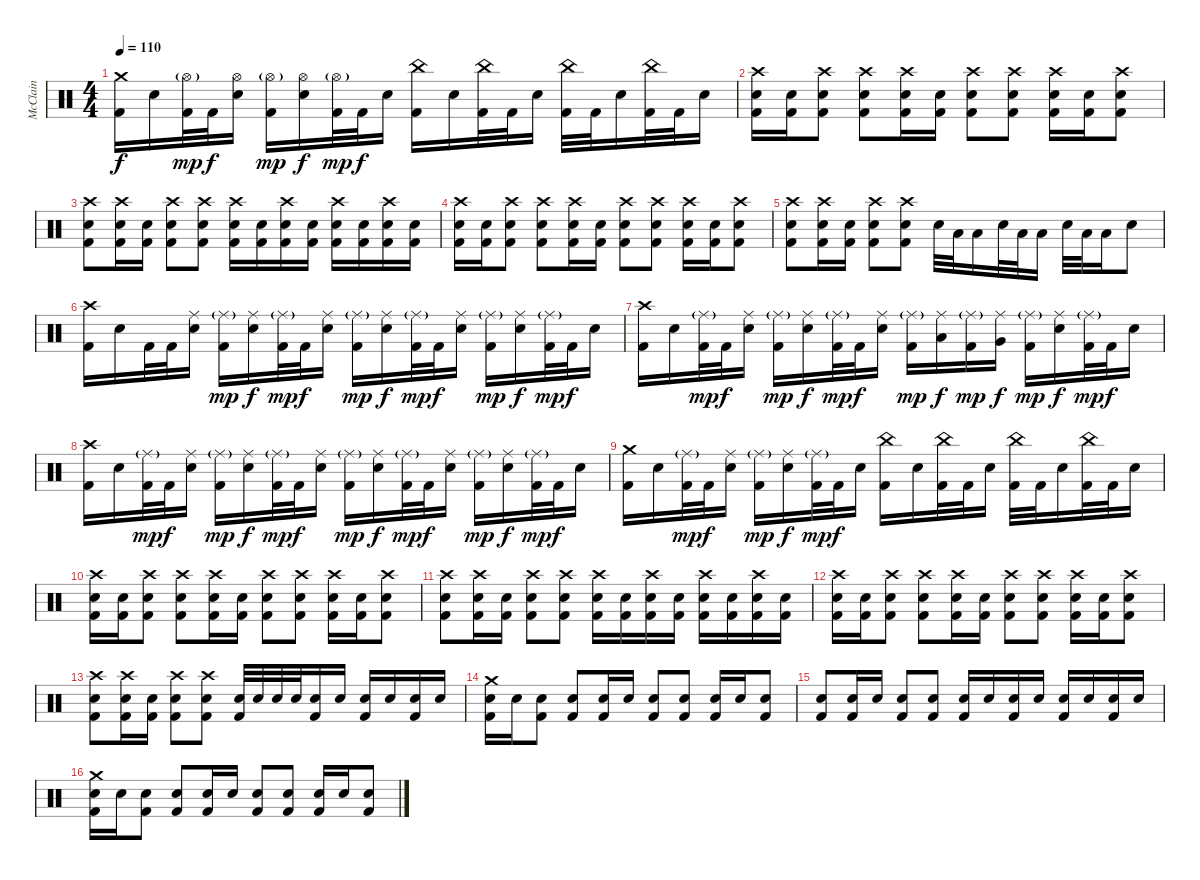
\track ("McClain" "McClain") {instrument percussion}
\staff {score}
\articulation defaults
\ts (4 4)
\tempo 110
\clef neutral
\ks c
("Crash medium (hit)" "Kick (hit) 2").16{dy f} "Electric Snare (hit)".16 ("Hi-Hat (open)"{g} "Kick (hit) 2").32{dy mp} "Kick (hit) 2".32{dy f} ("Hi-Hat (open)" "Electric Snare (hit)").16 ("Hi-Hat (open)"{g} "Kick (hit) 2").16{dy mp} ("Hi-Hat (open)" "Electric Snare (hit)").16{dy f} ("Hi-Hat (open)"{g} "Kick (hit) 2").32{dy mp} "Kick (hit) 2".32{dy f} "Electric Snare (hit)".16 ("China (hit)" "Kick (hit) 2").16 "Electric Snare (hit)".16 ("China (hit)" "Kick (hit) 2").32 "Kick (hit) 2".32 "Electric Snare (hit)".16 ("China (hit)" "Kick (hit) 2").32 "Kick (hit) 2".32 "Electric Snare (hit)".16 ("China (hit)" "Kick (hit) 2").32 "Kick (hit) 2".32 "Electric Snare (hit)".16 |
("Crash high (hit)" "Electric Snare (hit)" "Kick (hit) 2").16 ("Electric Snare (hit)" "Kick (hit) 2").16 ("Crash high (hit)" "Electric Snare (hit)" "Kick (hit) 2").8 ("Crash high (hit)" "Electric Snare (hit)" "Kick (hit) 2").8 ("Crash high (hit)" "Electric Snare (hit)" "Kick (hit) 2").16 ("Electric Snare (hit)" "Kick (hit) 2").16 ("Crash high (hit)" "Electric Snare (hit)" "Kick (hit) 2").8 ("Crash high (hit)" "Electric Snare (hit)" "Kick (hit) 2").8 ("Crash high (hit)" "Electric Snare (hit)" "Kick (hit) 2").16 ("Electric Snare (hit)" "Kick (hit) 2").16 ("Crash high (hit)" "Electric Snare (hit)" "Kick (hit) 2").8 |
("Crash high (hit)" "Electric Snare (hit)" "Kick (hit) 2").8 ("Crash high (hit)" "Electric Snare (hit)" "Kick (hit) 2").16 ("Electric Snare (hit)" "Kick (hit) 2").16 ("Crash high (hit)" "Electric Snare (hit)" "Kick (hit) 2").8 ("Crash high (hit)" "Electric Snare (hit)" "Kick (hit) 2").8 ("Crash high (hit)" "Electric Snare (hit)" "Kick (hit) 2").16 ("Electric Snare (hit)" "Kick (hit) 2").16 ("Crash high (hit)" "Electric Snare (hit)" "Kick (hit) 2").16 ("Electric Snare (hit)" "Kick (hit) 2").16 ("Crash high (hit)" "Electric Snare (hit)" "Kick (hit) 2").16 ("Electric Snare (hit)" "Kick (hit) 2").16 ("Crash high (hit)" "Electric Snare (hit)" "Kick (hit) 2").16 ("Electric Snare (hit)" "Kick (hit) 2").16 |
("Crash high (hit)" "Electric Snare (hit)" "Kick (hit) 2").16 ("Electric Snare (hit)" "Kick (hit) 2").16 ("Crash high (hit)" "Electric Snare (hit)" "Kick (hit) 2").8 ("Crash high (hit)" "Electric Snare (hit)" "Kick (hit) 2").8 ("Crash high (hit)" "Electric Snare (hit)" "Kick (hit) 2").16 ("Electric Snare (hit)" "Kick (hit) 2").16 ("Crash high (hit)" "Electric Snare (hit)" "Kick (hit) 2").8 ("Crash high (hit)" "Electric Snare (hit)" "Kick (hit) 2").8 ("Crash high (hit)" "Electric Snare (hit)" "Kick (hit) 2").16 ("Electric Snare (hit)" "Kick (hit) 2").16 ("Crash high (hit)" "Electric Snare (hit)" "Kick (hit) 2").8 |
("Crash high (hit)" "Electric Snare (hit)" "Kick (hit) 2").8 ("Crash high (hit)" "Electric Snare (hit)" "Kick (hit) 2").16 ("Electric Snare (hit)" "Kick (hit) 2").16 ("Crash high (hit)" "Electric Snare (hit)" "Kick (hit) 2").8 ("Crash high (hit)" "Electric Snare (hit)" "Kick (hit) 2").8 "Electric Snare (hit)".32 "Low Floor Tom (hit)".32 "Low Floor Tom (hit)".16 "Electric Snare (hit)".32 "Low Floor Tom (hit)".32 "Low Floor Tom (hit)".16 "Electric Snare (hit)".32 "Low Floor Tom (hit)".32 "Low Floor Tom (hit)".16 "Electric Snare (hit)".8 |
("Crash high (hit)" "Kick (hit) 2").16 "Electric Snare (hit)".16 "Kick (hit) 2".32 "Kick (hit) 2".32 ("Ride (middle)" "Electric Snare (hit)").16 ("Ride (middle)"{g} "Kick (hit) 2").16{dy mp} ("Ride (middle)" "Electric Snare (hit)").16{dy f} ("Ride (middle)"{g} "Kick (hit) 2").32{dy mp} "Kick (hit) 2".32{dy f} ("Ride (middle)" "Electric Snare (hit)").16 ("Ride (middle)"{g} "Kick (hit) 2").16{dy mp} ("Ride (middle)" "Electric Snare (hit)").16{dy f} ("Ride (middle)"{g} "Kick (hit) 2").32{dy mp} "Kick (hit) 2".32{dy f} ("Ride (middle)" "Electric Snare (hit)").16 ("Ride (middle)"{g} "Kick (hit) 2").16{dy mp} ("Ride (middle)" "Electric Snare (hit)").16{dy f} ("Ride (middle)"{g} "Kick (hit) 2").32{dy mp} "Kick (hit) 2".32{dy f} "Electric Snare (hit)".16 |
("Crash high (hit)" "Kick (hit) 2").16 "Electric Snare (hit)".16 ("Ride (middle)"{g} "Kick (hit) 2").32{dy mp} "Kick (hit) 2".32{dy f} ("Ride (middle)" "Electric Snare (hit)").16 ("Ride (middle)"{g} "Kick (hit) 2").16{dy mp} ("Ride (middle)" "Electric Snare (hit)").16{dy f} ("Ride (middle)"{g} "Kick (hit) 2").32{dy mp} "Kick (hit) 2".32{dy f} ("Ride (middle)" "Electric Snare (hit)").16 ("Ride (middle)"{g} "Kick (hit) 2").16{dy mp} ("Ride (middle)" "Low Tom (hit)").16{dy f} ("Ride (middle)"{g} "Kick (hit) 2").16{dy mp} ("Ride (middle)" "Very Low Tom (hit)").16{dy f} ("Ride (middle)"{g} "Kick (hit) 2").16{dy mp} ("Ride (middle)" "Electric Snare (hit)").16{dy f} ("Ride (middle)"{g} "Kick (hit) 2").32{dy mp} "Kick (hit) 2".32{dy f} "Electric Snare (hit)".16 |
("Crash high (hit)" "Kick (hit) 2").16 "Electric Snare (hit)".16 ("Ride (middle)"{g} "Kick (hit) 2").32{dy mp} "Kick (hit) 2".32{dy f} ("Ride (middle)" "Electric Snare (hit)").16 ("Ride (middle)"{g} "Kick (hit) 2").16{dy mp} ("Ride (middle)" "Electric Snare (hit)").16{dy f} ("Ride (middle)"{g} "Kick (hit) 2").32{dy mp} "Kick (hit) 2".32{dy f} ("Ride (middle)" "Electric Snare (hit)").16 ("Ride (middle)"{g} "Kick (hit) 2").16{dy mp} ("Ride (middle)" "Electric Snare (hit)").16{dy f} ("Ride (middle)"{g} "Kick (hit) 2").32{dy mp} "Kick (hit) 2".32{dy f} ("Ride (middle)" "Electric Snare (hit)").16 ("Ride (middle)"{g} "Kick (hit) 2").16{dy mp} ("Ride (middle)" "Electric Snare (hit)").16{dy f} ("Ride (middle)"{g} "Kick (hit) 2").32{dy mp} "Kick (hit) 2".32{dy f} "Electric Snare (hit)".16 |
("Crash medium (hit)" "Kick (hit) 2").16 "Electric Snare (hit)".16 ("Ride (middle)"{g} "Kick (hit) 2").32{dy mp} "Kick (hit) 2".32{dy f} ("Ride (middle)" "Electric Snare (hit)").16 ("Ride (middle)"{g} "Kick (hit) 2").16{dy mp} ("Ride (middle)" "Electric Snare (hit)").16{dy f} ("Ride (middle)"{g} "Kick (hit) 2").32{dy mp} "Kick (hit) 2".32{dy f} "Electric Snare (hit)".16 ("China (hit)" "Kick (hit) 2").16 "Electric Snare (hit)".16 ("China (hit)" "Kick (hit) 2").32 "Kick (hit) 2".32 "Electric Snare (hit)".16 ("China (hit)" "Kick (hit) 2").32 "Kick (hit) 2".32 "Electric Snare (hit)".16 ("China (hit)" "Kick (hit) 2").32 "Kick (hit) 2".32 "Electric Snare (hit)".16 |
("Crash high (hit)" "Electric Snare (hit)" "Kick (hit) 2").16 ("Electric Snare (hit)" "Kick (hit) 2").16 ("Crash high (hit)" "Electric Snare (hit)" "Kick (hit) 2").8 ("Crash high (hit)" "Electric Snare (hit)" "Kick (hit) 2").8 ("Crash high (hit)" "Electric Snare (hit)" "Kick (hit) 2").16 ("Electric Snare (hit)" "Kick (hit) 2").16 ("Crash high (hit)" "Electric Snare (hit)" "Kick (hit) 2").8 ("Crash high (hit)" "Electric Snare (hit)" "Kick (hit) 2").8 ("Crash high (hit)" "Electric Snare (hit)" "Kick (hit) 2").16 ("Electric Snare (hit)" "Kick (hit) 2").16 ("Crash high (hit)" "Electric Snare (hit)" "Kick (hit) 2").8 |
("Crash high (hit)" "Electric Snare (hit)" "Kick (hit) 2").8 ("Crash high (hit)" "Electric Snare (hit)" "Kick (hit) 2").16 ("Electric Snare (hit)" "Kick (hit) 2").16 ("Crash high (hit)" "Electric Snare (hit)" "Kick (hit) 2").8 ("Crash high (hit)" "Electric Snare (hit)" "Kick (hit) 2").8 ("Crash high (hit)" "Electric Snare (hit)" "Kick (hit) 2").16 ("Electric Snare (hit)" "Kick (hit) 2").16 ("Crash high (hit)" "Electric Snare (hit)" "Kick (hit) 2").16 ("Electric Snare (hit)" "Kick (hit) 2").16 ("Crash high (hit)" "Electric Snare (hit)" "Kick (hit) 2").16 ("Electric Snare (hit)" "Kick (hit) 2").16 ("Crash high (hit)" "Electric Snare (hit)" "Kick (hit) 2").16 ("Electric Snare (hit)" "Kick (hit) 2").16 |
("Crash high (hit)" "Electric Snare (hit)" "Kick (hit) 2").16 ("Electric Snare (hit)" "Kick (hit) 2").16 ("Crash high (hit)" "Electric Snare (hit)" "Kick (hit) 2").8 ("Crash high (hit)" "Electric Snare (hit)" "Kick (hit) 2").8 ("Crash high (hit)" "Electric Snare (hit)" "Kick (hit) 2").16 ("Electric Snare (hit)" "Kick (hit) 2").16 ("Crash high (hit)" "Electric Snare (hit)" "Kick (hit) 2").8 ("Crash high (hit)" "Electric Snare (hit)" "Kick (hit) 2").8 ("Crash high (hit)" "Electric Snare (hit)" "Kick (hit) 2").16 ("Electric Snare (hit)" "Kick (hit) 2").16 ("Crash high (hit)" "Electric Snare (hit)" "Kick (hit) 2").8 |
("Crash high (hit)" "Electric Snare (hit)" "Kick (hit) 2").8 ("Crash high (hit)" "Electric Snare (hit)" "Kick (hit) 2").16 ("Electric Snare (hit)" "Kick (hit) 2").16 ("Crash high (hit)" "Electric Snare (hit)" "Kick (hit) 2").8 ("Crash high (hit)" "Electric Snare (hit)" "Kick (hit) 2").8 ("Electric Snare (hit)" "Kick (hit) 2").32 "Electric Snare (hit)".32 "Electric Snare (hit)".32 "Electric Snare (hit)".32 ("Electric Snare (hit)" "Kick (hit) 2").16 "Electric Snare (hit)".16 ("Electric Snare (hit)" "Kick (hit) 2").16 "Electric Snare (hit)".16 ("Electric Snare (hit)" "Kick (hit) 2").16 "Electric Snare (hit)".16 |
("Crash medium (hit)" "Electric Snare (hit)" "Kick (hit) 2").16 "Electric Snare (hit)".16 ("Electric Snare (hit)" "Kick (hit) 2").8 ("Electric Snare (hit)" "Kick (hit) 2").8 ("Electric Snare (hit)" "Kick (hit) 2").16 "Electric Snare (hit)".16 ("Electric Snare (hit)" "Kick (hit) 2").8 ("Electric Snare (hit)" "Kick (hit) 2").8 ("Electric Snare (hit)" "Kick (hit) 2").16 "Electric Snare (hit)".16 ("Electric Snare (hit)" "Kick (hit) 2").8 |
("Electric Snare (hit)" "Kick (hit) 2").8 ("Electric Snare (hit)" "Kick (hit) 2").16 "Electric Snare (hit)".16 ("Electric Snare (hit)" "Kick (hit) 2").8 ("Electric Snare (hit)" "Kick (hit) 2").8 ("Electric Snare (hit)" "Kick (hit) 2").16 "Electric Snare (hit)".16 ("Electric Snare (hit)" "Kick (hit) 2").16 "Electric Snare (hit)".16 ("Electric Snare (hit)" "Kick (hit) 2").16 "Electric Snare (hit)".16 ("Electric Snare (hit)" "Kick (hit) 2").16 "Electric Snare (hit)".16 |
("Crash medium (hit)" "Electric Snare (hit)" "Kick (hit) 2").16 "Electric Snare (hit)".16 ("Electric Snare (hit)" "Kick (hit) 2").8 ("Electric Snare (hit)" "Kick (hit) 2").8 ("Electric Snare (hit)" "Kick (hit) 2").16 "Electric Snare (hit)".16 ("Electric Snare (hit)" "Kick (hit) 2").8 ("Electric Snare (hit)" "Kick (hit) 2").8 ("Electric Snare (hit)" "Kick (hit) 2").16 "Electric Snare (hit)".16 ("Electric Snare (hit)" "Kick (hit) 2").8
